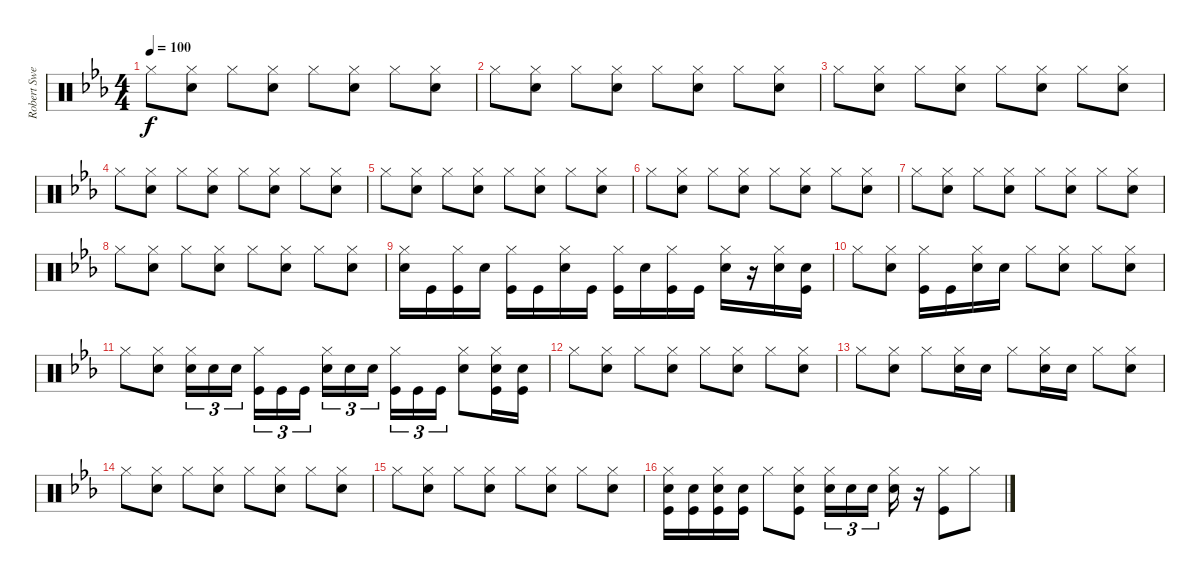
\track ("Robert Sweet" "Robert Swe") {instrument percussion}
\staff {score}
\articulation defaults
\ts (4 4)
\tempo 100
\clef neutral
\ks cminor "Hi-Hat (closed)".8{dy f}
("Hi-Hat (closed)" "Snare (hit) 2").8 "Hi-Hat (closed)".8 ("Hi-Hat (closed)" "Snare (hit) 2").8 "Hi-Hat (closed)".8 ("Hi-Hat (closed)" "Snare (hit) 2").8 "Hi-Hat (closed)".8 ("Hi-Hat (closed)" "Snare (hit) 2").8 |
"Hi-Hat (closed)".8 ("Hi-Hat (closed)" "Snare (hit) 2").8 "Hi-Hat (closed)".8 ("Hi-Hat (closed)" "Snare (hit) 2").8 "Hi-Hat (closed)".8 ("Hi-Hat (closed)" "Snare (hit) 2").8 "Hi-Hat (closed)".8 ("Hi-Hat (closed)" "Snare (hit) 2").8 |
"Hi-Hat (closed)".8 ("Hi-Hat (closed)" "Snare (hit) 2").8 "Hi-Hat (closed)".8 ("Hi-Hat (closed)" "Snare (hit) 2").8 "Hi-Hat (closed)".8 ("Hi-Hat (closed)" "Snare (hit) 2").8 "Hi-Hat (closed)".8 ("Hi-Hat (closed)" "Snare (hit) 2").8 |
"Hi-Hat (closed)".8 ("Hi-Hat (closed)" "Snare (hit) 2").8 "Hi-Hat (closed)".8 ("Hi-Hat (closed)" "Snare (hit) 2").8 "Hi-Hat (closed)".8 ("Hi-Hat (closed)" "Snare (hit) 2").8 "Hi-Hat (closed)".8 ("Hi-Hat (closed)" "Snare (hit) 2").8 |
"Hi-Hat (closed)".8 ("Hi-Hat (closed)" "Snare (hit) 2").8 "Hi-Hat (closed)".8 ("Hi-Hat (closed)" "Snare (hit) 2").8 "Hi-Hat (closed)".8 ("Hi-Hat (closed)" "Snare (hit) 2").8 "Hi-Hat (closed)".8 ("Hi-Hat (closed)" "Snare (hit) 2").8 |
"Hi-Hat (closed)".8 ("Hi-Hat (closed)" "Snare (hit) 2").8 "Hi-Hat (closed)".8 ("Hi-Hat (closed)" "Snare (hit) 2").8 "Hi-Hat (closed)".8 ("Hi-Hat (closed)" "Snare (hit) 2").8 "Hi-Hat (closed)".8 ("Hi-Hat (closed)" "Snare (hit) 2").8 |
"Hi-Hat (closed)".8 ("Hi-Hat (closed)" "Snare (hit) 2").8 "Hi-Hat (closed)".8 ("Hi-Hat (closed)" "Snare (hit) 2").8 "Hi-Hat (closed)".8 ("Hi-Hat (closed)" "Snare (hit) 2").8 "Hi-Hat (closed)".8 ("Hi-Hat (closed)" "Snare (hit) 2").8 |
"Hi-Hat (closed)".8 ("Hi-Hat (closed)" "Snare (hit) 2").8 "Hi-Hat (closed)".8 ("Hi-Hat (closed)" "Snare (hit) 2").8 "Hi-Hat (closed)".8 ("Hi-Hat (closed)" "Snare (hit) 2").8 "Hi-Hat (closed)".8 ("Hi-Hat (closed)" "Snare (hit) 2").8 |
("Hi-Hat (closed)" "Snare (hit) 2").16 "Kick (hit)".16 ("Hi-Hat (closed)" "Kick (hit)").16 "Snare (hit) 2".16 ("Hi-Hat (closed)" "Kick (hit)").16 "Kick (hit)".16 ("Hi-Hat (closed)" "Snare (hit) 2").16 "Kick (hit)".16 ("Hi-Hat (closed)" "Kick (hit)").16 "Snare (hit) 2".16 ("Hi-Hat (closed)" "Kick (hit)").16 "Kick (hit)".16 ("Hi-Hat (closed)" "Snare (hit) 2").16 r.16 ("Hi-Hat (closed)" "Snare (hit) 2").16 ("Snare (hit) 2" "Kick (hit)").16 |
"Hi-Hat (closed)".8 ("Hi-Hat (closed)" "Snare (hit) 2").8 ("Hi-Hat (closed)" "Kick (hit)").16 "Kick (hit)".16 ("Hi-Hat (closed)" "Snare (hit) 2").16 "Snare (hit) 2".16 "Hi-Hat (closed)".8 ("Hi-Hat (closed)" "Snare (hit) 2").8 "Hi-Hat (closed)".8 ("Hi-Hat (closed)" "Snare (hit) 2").8 |
"Hi-Hat (closed)".8 ("Hi-Hat (closed)" "Snare (hit) 2").8 ("Hi-Hat (closed)" "Snare (hit) 2").16{tu (3 2)} "Snare (hit) 2".16{tu (3 2)} "Snare (hit) 2".16{tu (3 2)} ("Hi-Hat (closed)" "Kick (hit)").16{tu (3 2)} "Kick (hit)".16{tu (3 2)} "Kick (hit)".16{tu (3 2)} ("Hi-Hat (closed)" "Snare (hit) 2").16{tu (3 2)} "Snare (hit) 2".16{tu (3 2)} "Snare (hit) 2".16{tu (3 2)} ("Hi-Hat (closed)" "Kick (hit)").16{tu (3 2)} "Kick (hit)".16{tu (3 2)} "Kick (hit)".16{tu (3 2)} ("Hi-Hat (closed)" "Snare (hit) 2").8 ("Hi-Hat (closed)" "Kick (hit)" "Snare (hit) 2").16 ("Kick (hit)" "Snare (hit) 2").16 |
"Hi-Hat (closed)".8 ("Hi-Hat (closed)" "Snare (hit) 2").8 "Hi-Hat (closed)".8 ("Hi-Hat (closed)" "Snare (hit) 2").8 "Hi-Hat (closed)".8 ("Hi-Hat (closed)" "Snare (hit) 2").8 "Hi-Hat (closed)".8 ("Hi-Hat (closed)" "Snare (hit) 2").8 |
"Hi-Hat (closed)".8 ("Hi-Hat (closed)" "Snare (hit) 2").8 "Hi-Hat (closed)".8 ("Hi-Hat (closed)" "Snare (hit) 2").16 "Snare (hit) 2".16 "Hi-Hat (closed)".8 ("Hi-Hat (closed)" "Snare (hit) 2").16 "Snare (hit) 2".16 "Hi-Hat (closed)".8 ("Hi-Hat (closed)" "Snare (hit) 2").8 |
"Hi-Hat (closed)".8 ("Hi-Hat (closed)" "Snare (hit) 2").8 "Hi-Hat (closed)".8 ("Hi-Hat (closed)" "Snare (hit) 2").8 "Hi-Hat (closed)".8 ("Hi-Hat (closed)" "Snare (hit) 2").8 "Hi-Hat (closed)".8 ("Hi-Hat (closed)" "Snare (hit) 2").8 |
"Hi-Hat (closed)".8 ("Hi-Hat (closed)" "Snare (hit) 2").8 "Hi-Hat (closed)".8 ("Hi-Hat (closed)" "Snare (hit) 2").8 "Hi-Hat (closed)".8 ("Hi-Hat (closed)" "Snare (hit) 2").8 "Hi-Hat (closed)".8 ("Hi-Hat (closed)" "Snare (hit) 2").8 |
("Hi-Hat (closed)" "Snare (hit) 2" "Kick (hit)").16 ("Snare (hit) 2" "Kick (hit)").16 ("Hi-Hat (closed)" "Snare (hit) 2" "Kick (hit)").16 ("Snare (hit) 2" "Kick (hit)").16 "Hi-Hat (closed)".8 ("Hi-Hat (closed)" "Snare (hit) 2" "Kick (hit)").8 ("Hi-Hat (closed)" "Snare (hit) 2").16{tu (3 2)} "Snare (hit) 2".16{tu (3 2)} "Snare (hit) 2".16{tu (3 2)} ("Hi-Hat (closed)" "Snare (hit) 2").16 r.16 ("Hi-Hat (closed)" "Kick (hit)").8 "Hi-Hat (closed)".8
